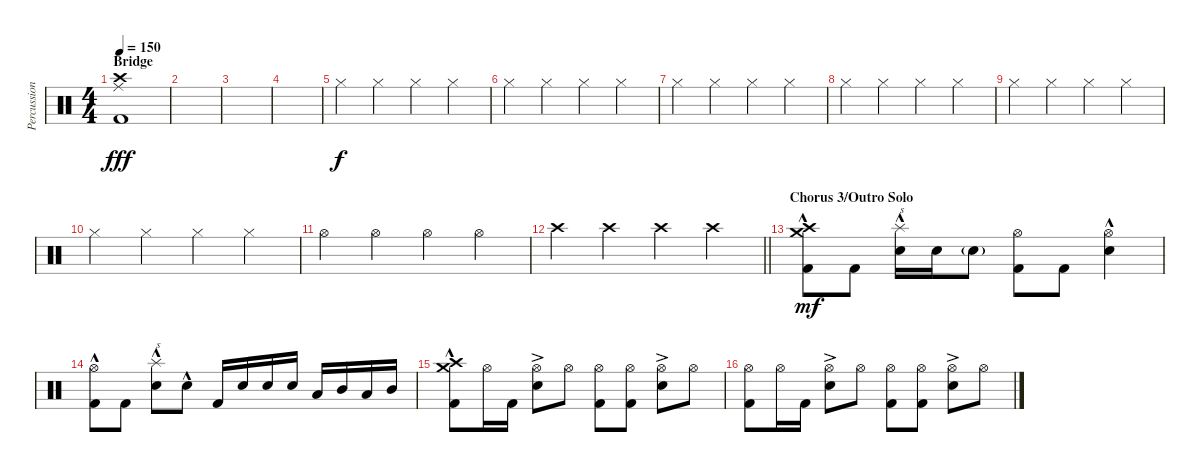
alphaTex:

\track ("Percussion" "Percussion") {instrument percussion}
\staff {score}
\articulation defaults
\ts (4 4)
\section ("" "Bridge")
\tempo 150
\clef neutral
\ks c
("Crash high (hit)" "Ride (middle)" "Kick (hit) 2").1{dy fff} |
|
|
|
"Hi-Hat (closed)".4{dy f} "Hi-Hat (closed)".4 "Hi-Hat (closed)".4 "Hi-Hat (closed)".4 |
"Hi-Hat (closed)".4 "Hi-Hat (closed)".4 "Hi-Hat (closed)".4 "Hi-Hat (closed)".4 |
"Hi-Hat (closed)".4 "Hi-Hat (closed)".4 "Hi-Hat (closed)".4 "Hi-Hat (closed)".4 |
"Hi-Hat (closed)".4 "Hi-Hat (closed)".4 "Hi-Hat (closed)".4 "Hi-Hat (closed)".4 |
"Hi-Hat (closed)".4 "Hi-Hat (closed)".4 "Hi-Hat (closed)".4 "Hi-Hat (closed)".4 |
"Hi-Hat (closed)".4 "Hi-Hat (closed)".4 "Hi-Hat (closed)".4 "Hi-Hat (closed)".4 |
"Hi-Hat (open)".4 "Hi-Hat (open)".4 "Hi-Hat (open)".4 "Hi-Hat (open)".4 |
\barLineRight lightlight "Crash high (hit)".4 "Crash high (hit)".4 "Crash high (hit)".4 "Crash high (hit)".4
|
\section ("" "Chorus 3/Outro Solo")
("Crash medium (hit)"{hac} "Crash high (hit)"{hac} "Kick (hit) 2").8{dy mf} "Kick (hit) 2".8 ("Splash (hit)"{hac} "Electric Snare (hit)").16{txt "s"} "Electric Snare (hit)".16 "Electric Snare (hit)"{g}.8 ("Hi-Hat (open)" "Kick (hit) 2").8 "Kick (hit) 2".8 ("Hi-Hat (open)" "Electric Snare (hit)"{hac}).4 |
("Hi-Hat (open)"{hac} "Kick (hit) 2").8 "Kick (hit) 2".8 ("Splash (hit)" "Electric Snare (hit)"{hac}).8{txt "s"} "Electric Snare (hit)"{hac}.8 "Kick (hit) 2".16 "Electric Snare (hit)".16 "Electric Snare (hit)".16 "Electric Snare (hit)".16 "Low Tom (hit)".16 "Mid Tom (hit)".16 "Low Tom (hit)".16 "Mid Tom (hit)".16 |
("Crash high (hit)"{hac} "Crash medium (hit)" "Kick (hit) 2").8 "Hi-Hat (open)".16 "Kick (hit) 2".16 ("Hi-Hat (open)" "Electric Snare (hit)"{ac}).8 "Hi-Hat (open)".8 ("Hi-Hat (open)" "Kick (hit) 2").8 ("Hi-Hat (open)" "Kick (hit) 2").8 ("Hi-Hat (open)" "Electric Snare (hit)"{ac}).8 "Hi-Hat (open)".8 |
("Hi-Hat (open)" "Kick (hit) 2").8 "Hi-Hat (open)".16 "Kick (hit) 2".16 ("Hi-Hat (open)" "Electric Snare (hit)"{ac}).8 "Hi-Hat (open)".8 ("Hi-Hat (open)" "Kick (hit) 2").8 ("Hi-Hat (open)" "Kick (hit) 2").8 ("Hi-Hat (open)" "Electric Snare (hit)"{ac}).8 "Hi-Hat (open)".8
